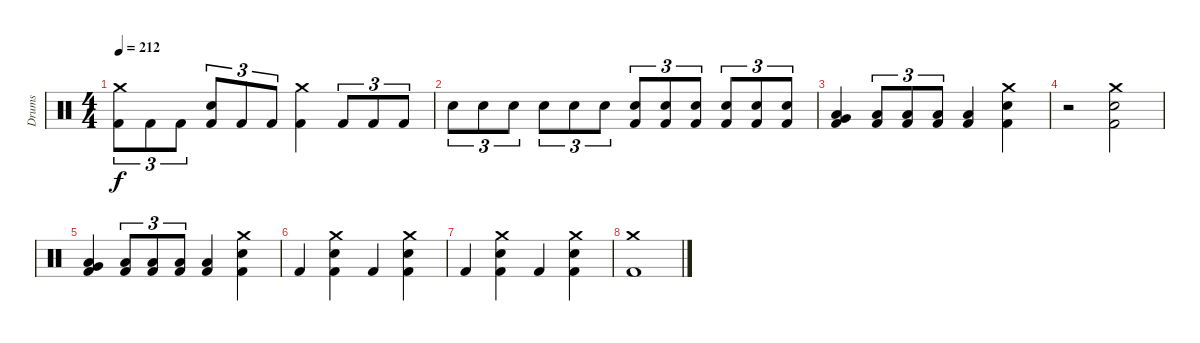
\track ("Drums" "Drums") {instrument percussion}
\staff {score}
\articulation defaults
\ts (4 4)
\tempo 212
\clef neutral
\ks c
("Crash medium (hit)" "Kick (hit) 2").8{tu (3 2) dy f} "Kick (hit) 2".8{tu (3 2)} "Kick (hit) 2".8{tu (3 2)} ("Electric Snare (hit)" "Kick (hit) 2").8{tu (3 2)} "Kick (hit) 2".8{tu (3 2)} "Kick (hit) 2".8{tu (3 2)} ("Crash medium (hit)" "Kick (hit) 2").4 "Kick (hit) 2".8{tu (3 2)} "Kick (hit) 2".8{tu (3 2)} "Kick (hit) 2".8{tu (3 2)} |
"Electric Snare (hit)".8{tu (3 2)} "Electric Snare (hit)".8{tu (3 2)} "Electric Snare (hit)".8{tu (3 2)} "Electric Snare (hit)".8{tu (3 2)} "Electric Snare (hit)".8{tu (3 2)} "Electric Snare (hit)".8{tu (3 2)} ("Electric Snare (hit)" "Kick (hit) 2").8{tu (3 2)} ("Electric Snare (hit)" "Kick (hit) 2").8{tu (3 2)} ("Electric Snare (hit)" "Kick (hit) 2").8{tu (3 2)} ("Electric Snare (hit)" "Kick (hit) 2").8{tu (3 2)} ("Electric Snare (hit)" "Kick (hit) 2").8{tu (3 2)} ("Electric Snare (hit)" "Kick (hit) 2").8{tu (3 2)} |
("Very Low Tom (hit)" "Low Floor Tom (hit)" "Kick (hit) 2").4 ("Low Floor Tom (hit)" "Kick (hit) 2").8{tu (3 2)} ("Low Floor Tom (hit)" "Kick (hit) 2").8{tu (3 2)} ("Low Floor Tom (hit)" "Kick (hit) 2").8{tu (3 2)} ("Low Floor Tom (hit)" "Kick (hit) 2").4 ("Crash medium (hit)" "Electric Snare (hit)" "Kick (hit) 2").4 |
r.2 ("Crash medium (hit)" "Electric Snare (hit)" "Kick (hit) 2").2 |
("Very Low Tom (hit)" "Low Floor Tom (hit)" "Kick (hit) 2").4 ("Low Floor Tom (hit)" "Kick (hit) 2").8{tu (3 2)} ("Low Floor Tom (hit)" "Kick (hit) 2").8{tu (3 2)} ("Low Floor Tom (hit)" "Kick (hit) 2").8{tu (3 2)} ("Low Floor Tom (hit)" "Kick (hit) 2").4 ("Crash medium (hit)" "Electric Snare (hit)" "Kick (hit) 2").4 |
"Kick (hit) 2".4 ("Crash medium (hit)" "Electric Snare (hit)" "Kick (hit) 2").4 "Kick (hit) 2".4 ("Crash medium (hit)" "Electric Snare (hit)" "Kick (hit) 2").4 |
"Kick (hit) 2".4 ("Crash medium (hit)" "Electric Snare (hit)" "Kick (hit) 2").4 "Kick (hit) 2".4 ("Crash medium (hit)" "Electric Snare (hit)" "Kick (hit) 2").4 |
("Crash medium (hit)" "Kick (hit) 2").1
